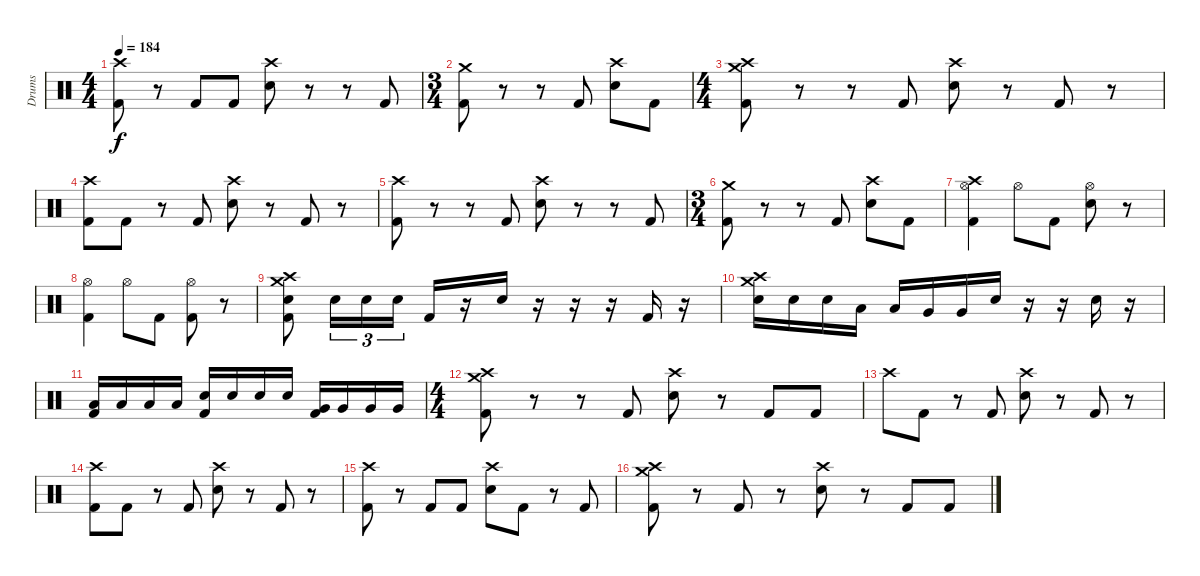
\track ("Drums" "Drums") {instrument percussion}
\staff {score}
\articulation defaults
\ts (4 4)
\tempo 184
\clef neutral
\ks c
("Crash high (hit)" "Kick (hit) 2").8{dy f} r.8 "Kick (hit) 2".8 "Kick (hit) 2".8 ("Crash high (hit)" "Snare (hit) 2").8 r.8 r.8 "Kick (hit) 2".8 |
\ts (3 4)
("Crash medium (hit)" "Kick (hit) 2").8 r.8 r.8 "Kick (hit) 2".8 ("Crash high (hit)" "Snare (hit) 2").8 "Kick (hit) 2".8 |
\ts (4 4)
("Crash medium (hit)" "Crash high (hit)" "Kick (hit) 2").8 r.8 r.8 "Kick (hit) 2".8 ("Crash high (hit)" "Snare (hit) 2").8 r.8 "Kick (hit) 2".8 r.8 |
("Crash high (hit)" "Kick (hit) 2").8 "Kick (hit) 2".8 r.8 "Kick (hit) 2".8 ("Crash high (hit)" "Snare (hit) 2").8 r.8 "Kick (hit) 2".8 r.8 |
("Crash high (hit)" "Kick (hit) 2").8 r.8 r.8 "Kick (hit) 2".8 ("Crash high (hit)" "Snare (hit) 2").8 r.8 r.8 "Kick (hit) 2".8 |
\ts (3 4)
("Crash medium (hit)" "Kick (hit) 2").8 r.8 r.8 "Kick (hit) 2".8 ("Crash high (hit)" "Snare (hit) 2").8 "Kick (hit) 2".8 |
("Crash high (hit)" "Hi-Hat (open)" "Kick (hit) 2").4 "Hi-Hat (open)".8 "Kick (hit) 2".8 ("Hi-Hat (open)" "Snare (hit) 2").8 r.8 |
("Hi-Hat (open)" "Kick (hit) 2").4 "Hi-Hat (open)".8 "Kick (hit) 2".8 ("Hi-Hat (open)" "Kick (hit) 2").8 r.8 |
("Crash medium (hit)" "Crash high (hit)" "Snare (hit) 2" "Kick (hit) 2").8 "Snare (hit) 2".16{tu (3 2)} "Snare (hit) 2".16{tu (3 2)} "Snare (hit) 2".16{tu (3 2)} "Kick (hit) 2".16 r.16 "Snare (hit) 2".16 r.16 r.16 r.16 "Kick (hit) 2".16 r.16 |
("Crash medium (hit)" "Crash high (hit)" "Snare (hit) 2").16 "Snare (hit) 2".16 "Snare (hit) 2".16 "Low Tom (hit)".16 "Low Tom (hit)".16 "Very Low Tom (hit)".16 "Very Low Tom (hit)".16 "Snare (hit) 2".16 r.16 r.16 "Snare (hit) 2".16 r.16 |
("Low Tom (hit)" "Kick (hit) 2").16 "Low Tom (hit)".16 "Low Tom (hit)".16 "Low Tom (hit)".16 ("Snare (hit) 2" "Kick (hit) 2").16 "Snare (hit) 2".16 "Snare (hit) 2".16 "Snare (hit) 2".16 ("Very Low Tom (hit)" "Kick (hit) 2").16 "Very Low Tom (hit)".16 "Very Low Tom (hit)".16 "Very Low Tom (hit)".16 |
\ts (4 4)
("Crash medium (hit)" "Crash high (hit)" "Kick (hit) 2").8 r.8 r.8 "Kick (hit) 2".8 ("Crash high (hit)" "Snare (hit) 2").8 r.8 "Kick (hit) 2".8 "Kick (hit) 2".8 |
"Crash high (hit)".8 "Kick (hit) 2".8 r.8 "Kick (hit) 2".8 ("Crash high (hit)" "Snare (hit) 2").8 r.8 "Kick (hit) 2".8 r.8 |
("Crash high (hit)" "Kick (hit) 2").8 "Kick (hit) 2".8 r.8 "Kick (hit) 2".8 ("Crash high (hit)" "Snare (hit) 2").8 r.8 "Kick (hit) 2".8 r.8 |
("Crash high (hit)" "Kick (hit) 2").8 r.8 "Kick (hit) 2".8 "Kick (hit) 2".8 ("Crash high (hit)" "Snare (hit) 2").8 "Kick (hit) 2".8 r.8 "Kick (hit) 2".8 |
("Crash high (hit)" "Crash medium (hit)" "Kick (hit) 2").8 r.8 "Kick (hit) 2".8 r.8 ("Crash high (hit)" "Snare (hit) 2").8 r.8 "Kick (hit) 2".8 "Kick (hit) 2".8
